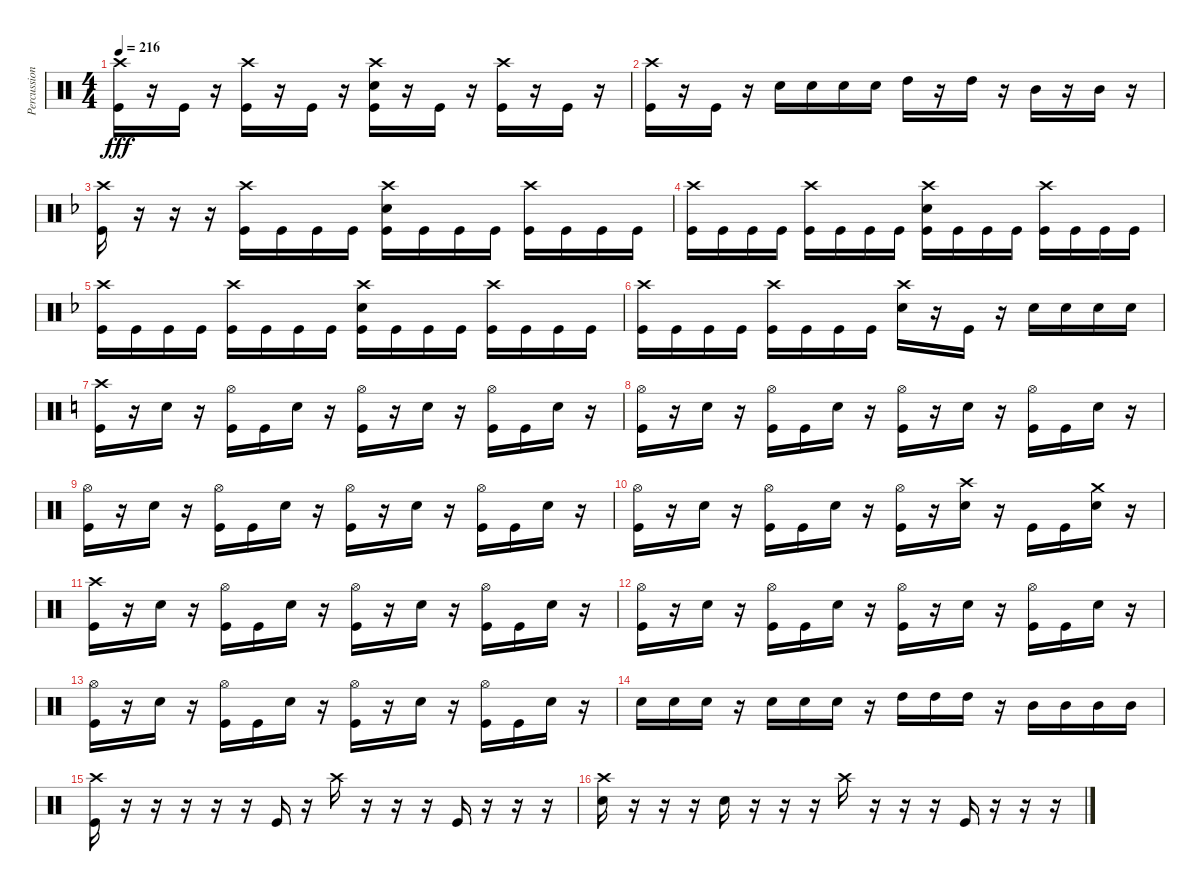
\track ("Percussion" "Percussion") {instrument percussion}
\staff {score}
\articulation defaults
\ts (4 4)
\tempo 216
\clef neutral
\ks c
("Crash high (hit)" "Kick (hit)").16{dy fff} r.16 "Kick (hit)".16 r.16 ("Crash high (hit)" "Kick (hit)").16 r.16 "Kick (hit)".16 r.16 ("Crash high (hit)" "Electric Snare (hit)" "Kick (hit)").16 r.16 "Kick (hit)".16 r.16 ("Crash high (hit)" "Kick (hit)").16 r.16 "Kick (hit)".16 r.16 |
("Crash high (hit)" "Kick (hit)").16 r.16 "Kick (hit)".16 r.16 "Electric Snare (hit)".16 "Electric Snare (hit)".16 "Electric Snare (hit)".16 "Electric Snare (hit)".16 "High Tom (hit)".16 r.16 "High Tom (hit)".16 r.16 "Mid Tom (hit)".16 r.16 "Mid Tom (hit)".16 r.16 |
\ks f
("Crash high (hit)" "Kick (hit)").16 r.16 r.16 r.16 ("Crash high (hit)" "Kick (hit)").16 "Kick (hit)".16 "Kick (hit)".16 "Kick (hit)".16 ("Crash high (hit)" "Electric Snare (hit)" "Kick (hit)").16 "Kick (hit)".16 "Kick (hit)".16 "Kick (hit)".16 ("Crash high (hit)" "Kick (hit)").16 "Kick (hit)".16 "Kick (hit)".16 "Kick (hit)".16 |
("Crash high (hit)" "Kick (hit)").16 "Kick (hit)".16 "Kick (hit)".16 "Kick (hit)".16 ("Crash high (hit)" "Kick (hit)").16 "Kick (hit)".16 "Kick (hit)".16 "Kick (hit)".16 ("Crash high (hit)" "Electric Snare (hit)" "Kick (hit)").16 "Kick (hit)".16 "Kick (hit)".16 "Kick (hit)".16 ("Crash high (hit)" "Kick (hit)").16 "Kick (hit)".16 "Kick (hit)".16 "Kick (hit)".16 |
("Crash high (hit)" "Kick (hit)").16 "Kick (hit)".16 "Kick (hit)".16 "Kick (hit)".16 ("Crash high (hit)" "Kick (hit)").16 "Kick (hit)".16 "Kick (hit)".16 "Kick (hit)".16 ("Crash high (hit)" "Electric Snare (hit)" "Kick (hit)").16 "Kick (hit)".16 "Kick (hit)".16 "Kick (hit)".16 ("Crash high (hit)" "Kick (hit)").16 "Kick (hit)".16 "Kick (hit)".16 "Kick (hit)".16 |
("Crash high (hit)" "Kick (hit)").16 "Kick (hit)".16 "Kick (hit)".16 "Kick (hit)".16 ("Crash high (hit)" "Kick (hit)").16 "Kick (hit)".16 "Kick (hit)".16 "Kick (hit)".16 ("Crash high (hit)" "Electric Snare (hit)").16 r.16 "Kick (hit)".16 r.16 "Electric Snare (hit)".16 "Electric Snare (hit)".16 "Electric Snare (hit)".16 "Electric Snare (hit)".16 |
\ks c
("Crash high (hit)" "Kick (hit)").16 r.16 "Electric Snare (hit)".16 r.16 ("Hi-Hat (open)" "Kick (hit)").16 "Kick (hit)".16 "Electric Snare (hit)".16 r.16 ("Hi-Hat (open)" "Kick (hit)").16 r.16 "Electric Snare (hit)".16 r.16 ("Hi-Hat (open)" "Kick (hit)").16 "Kick (hit)".16 "Electric Snare (hit)".16 r.16 |
("Hi-Hat (open)" "Kick (hit)").16 r.16 "Electric Snare (hit)".16 r.16 ("Hi-Hat (open)" "Kick (hit)").16 "Kick (hit)".16 "Electric Snare (hit)".16 r.16 ("Hi-Hat (open)" "Kick (hit)").16 r.16 "Electric Snare (hit)".16 r.16 ("Hi-Hat (open)" "Kick (hit)").16 "Kick (hit)".16 "Electric Snare (hit)".16 r.16 |
("Hi-Hat (open)" "Kick (hit)").16 r.16 "Electric Snare (hit)".16 r.16 ("Hi-Hat (open)" "Kick (hit)").16 "Kick (hit)".16 "Electric Snare (hit)".16 r.16 ("Hi-Hat (open)" "Kick (hit)").16 r.16 "Electric Snare (hit)".16 r.16 ("Hi-Hat (open)" "Kick (hit)").16 "Kick (hit)".16 "Electric Snare (hit)".16 r.16 |
("Hi-Hat (open)" "Kick (hit)").16 r.16 "Electric Snare (hit)".16 r.16 ("Hi-Hat (open)" "Kick (hit)").16 "Kick (hit)".16 "Electric Snare (hit)".16 r.16 ("Hi-Hat (open)" "Kick (hit)").16 r.16 ("Crash high (hit)" "Electric Snare (hit)").16 r.16 "Kick (hit)".16 "Kick (hit)".16 ("Crash medium (hit)" "Electric Snare (hit)").16 r.16 |
("Crash high (hit)" "Kick (hit)").16 r.16 "Electric Snare (hit)".16 r.16 ("Hi-Hat (open)" "Kick (hit)").16 "Kick (hit)".16 "Electric Snare (hit)".16 r.16 ("Hi-Hat (open)" "Kick (hit)").16 r.16 "Electric Snare (hit)".16 r.16 ("Hi-Hat (open)" "Kick (hit)").16 "Kick (hit)".16 "Electric Snare (hit)".16 r.16 |
("Hi-Hat (open)" "Kick (hit)").16 r.16 "Electric Snare (hit)".16 r.16 ("Hi-Hat (open)" "Kick (hit)").16 "Kick (hit)".16 "Electric Snare (hit)".16 r.16 ("Hi-Hat (open)" "Kick (hit)").16 r.16 "Electric Snare (hit)".16 r.16 ("Hi-Hat (open)" "Kick (hit)").16 "Kick (hit)".16 "Electric Snare (hit)".16 r.16 |
("Hi-Hat (open)" "Kick (hit)").16 r.16 "Electric Snare (hit)".16 r.16 ("Hi-Hat (open)" "Kick (hit)").16 "Kick (hit)".16 "Electric Snare (hit)".16 r.16 ("Hi-Hat (open)" "Kick (hit)").16 r.16 "Electric Snare (hit)".16 r.16 ("Hi-Hat (open)" "Kick (hit)").16 "Kick (hit)".16 "Electric Snare (hit)".16 r.16 |
"Electric Snare (hit)".16 "Electric Snare (hit)".16 "Electric Snare (hit)".16 r.16 "Electric Snare (hit)".16 "Electric Snare (hit)".16 "Electric Snare (hit)".16 r.16 "High Tom (hit)".16 "High Tom (hit)".16 "High Tom (hit)".16 r.16 "Mid Tom (hit)".16 "Mid Tom (hit)".16 "Mid Tom (hit)".16 "Mid Tom (hit)".16 |
("Crash high (hit)" "Kick (hit)").16 r.16 r.16 r.16 r.16 r.16 "Kick (hit)".16 r.16 "Crash high (hit)".16 r.16 r.16 r.16 "Kick (hit)".16 r.16 r.16 r.16 |
("Crash high (hit)" "Electric Snare (hit)").16 r.16 r.16 r.16 "Electric Snare (hit)".16 r.16 r.16 r.16 "Crash high (hit)".16 r.16 r.16 r.16 "Kick (hit)".16 r.16 r.16 r.16
